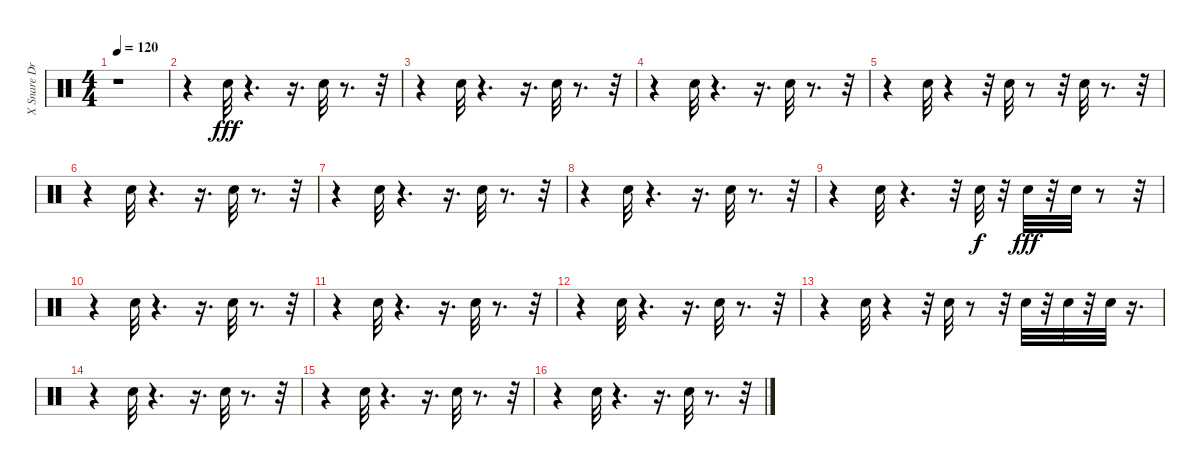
\track ("X Snare Drum        " "X Snare Dr") {instrument percussion}
\staff {score}
\articulation defaults
\ts (4 4)
\tempo 120
\clef neutral
\ks c
r.1{dy fff} |
r.4 "Snare (hit) 2".32 r.4{d} r.16{d} "Snare (hit) 2".32 r.8{d} r.32 |
r.4 "Snare (hit) 2".32 r.4{d} r.16{d} "Snare (hit) 2".32 r.8{d} r.32 |
r.4 "Snare (hit) 2".32 r.4{d} r.16{d} "Snare (hit) 2".32 r.8{d} r.32 |
r.4 "Snare (hit) 2".32 r.4 r.32 "Snare (hit) 2".32 r.8 r.32 "Snare (hit) 2".32 r.8{d} r.32 |
r.4 "Snare (hit) 2".32 r.4{d} r.16{d} "Snare (hit) 2".32 r.8{d} r.32 |
r.4 "Snare (hit) 2".32 r.4{d} r.16{d} "Snare (hit) 2".32 r.8{d} r.32 |
r.4 "Snare (hit) 2".32 r.4{d} r.16{d} "Snare (hit) 2".32 r.8{d} r.32 |
r.4 "Snare (hit) 2".32 r.4{d} r.32 "Snare (hit) 2".32{dy f} r.32 "Snare (hit) 2".32{dy fff} r.32 "Snare (hit) 2".32 r.8 r.32 |
r.4 "Snare (hit) 2".32 r.4{d} r.16{d} "Snare (hit) 2".32 r.8{d} r.32 |
r.4 "Snare (hit) 2".32 r.4{d} r.16{d} "Snare (hit) 2".32 r.8{d} r.32 |
r.4 "Snare (hit) 2".32 r.4{d} r.16{d} "Snare (hit) 2".32 r.8{d} r.32 |
r.4 "Snare (hit) 2".32 r.4 r.32 "Snare (hit) 2".32 r.8 r.32 "Snare (hit) 2".32 r.32 "Snare (hit) 2".32 r.32 "Snare (hit) 2".32 r.16{d} |
r.4 "Snare (hit) 2".32 r.4{d} r.16{d} "Snare (hit) 2".32 r.8{d} r.32 |
r.4 "Snare (hit) 2".32 r.4{d} r.16{d} "Snare (hit) 2".32 r.8{d} r.32 |
r.4 "Snare (hit) 2".32 r.4{d} r.16{d} "Snare (hit) 2".32 r.8{d} r.32
